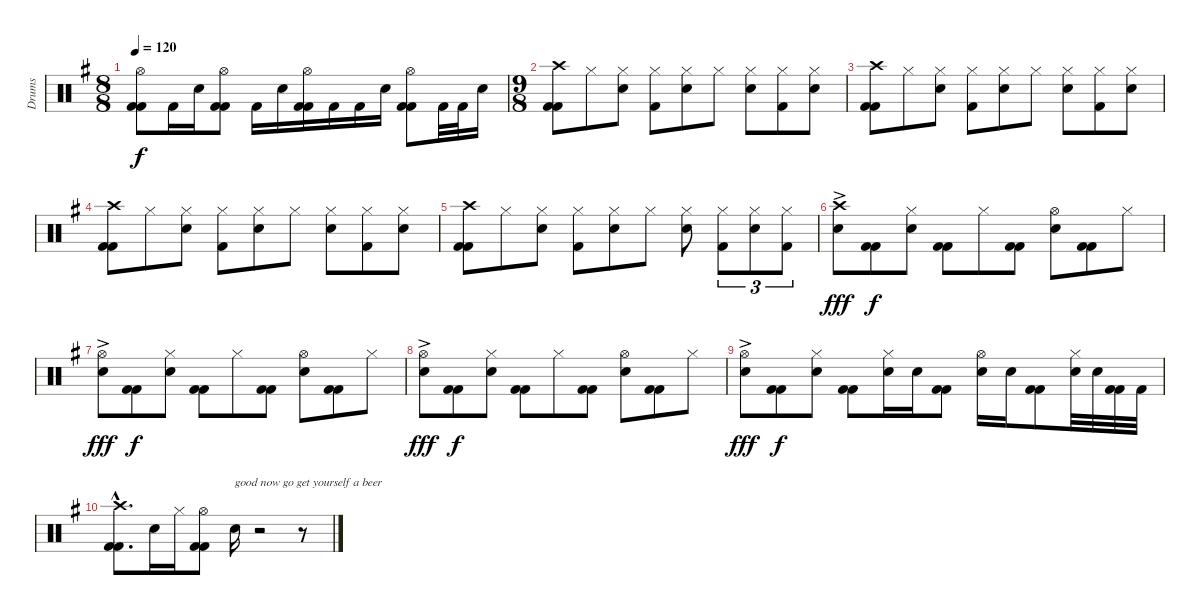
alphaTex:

\track ("Drums" "Drums") {instrument percussion}
\staff {score}
\articulation defaults
\ts (8 8)
\tempo 120
\clef neutral
\ks g
("Hi-Hat (open)" "Kick (hit) 2" "Kick (hit) 2").8{dy f} "Kick (hit) 2".16 "Snare (hit) 2".16 ("Hi-Hat (open)" "Kick (hit) 2" "Kick (hit) 2").8 "Kick (hit) 2".16 "Snare (hit) 2".16 ("Hi-Hat (open)" "Kick (hit) 2" "Kick (hit) 2").16 "Kick (hit) 2".16 "Kick (hit) 2".16 "Snare (hit) 2".16 ("Hi-Hat (open)" "Kick (hit) 2" "Kick (hit) 2").8 "Kick (hit) 2".32 "Kick (hit) 2".32 "Snare (hit) 2".16 |
\ts (9 8)
("Crash high (hit)" "Kick (hit) 2" "Kick (hit) 2").8 "Hi-Hat (closed)".8 ("Hi-Hat (closed)" "Snare (hit) 2").8 ("Hi-Hat (closed)" "Kick (hit) 2").8 ("Hi-Hat (closed)" "Snare (hit) 2").8 "Hi-Hat (closed)".8 ("Hi-Hat (closed)" "Snare (hit) 2").8 ("Hi-Hat (closed)" "Kick (hit) 2").8 ("Hi-Hat (closed)" "Snare (hit) 2").8 |
("Crash high (hit)" "Kick (hit) 2" "Kick (hit) 2").8 "Hi-Hat (closed)".8 ("Hi-Hat (closed)" "Snare (hit) 2").8 ("Hi-Hat (closed)" "Kick (hit) 2").8 ("Hi-Hat (closed)" "Snare (hit) 2").8 "Hi-Hat (closed)".8 ("Hi-Hat (closed)" "Snare (hit) 2").8 ("Hi-Hat (closed)" "Kick (hit) 2").8 ("Hi-Hat (closed)" "Snare (hit) 2").8 |
("Crash high (hit)" "Kick (hit) 2" "Kick (hit) 2").8 "Hi-Hat (closed)".8 ("Hi-Hat (closed)" "Snare (hit) 2").8 ("Hi-Hat (closed)" "Kick (hit) 2").8 ("Hi-Hat (closed)" "Snare (hit) 2").8 "Hi-Hat (closed)".8 ("Hi-Hat (closed)" "Snare (hit) 2").8 ("Hi-Hat (closed)" "Kick (hit) 2").8 ("Hi-Hat (closed)" "Snare (hit) 2").8 |
("Crash high (hit)" "Kick (hit) 2" "Kick (hit) 2").8 "Hi-Hat (closed)".8 ("Hi-Hat (closed)" "Snare (hit) 2").8 ("Hi-Hat (closed)" "Kick (hit) 2").8 ("Hi-Hat (closed)" "Snare (hit) 2").8 "Hi-Hat (closed)".8 ("Hi-Hat (closed)" "Snare (hit) 2").8 ("Hi-Hat (closed)" "Kick (hit) 2").8{tu (3 2)} ("Hi-Hat (closed)" "Snare (hit) 2").8{tu (3 2)} ("Hi-Hat (closed)" "Kick (hit) 2").8{tu (3 2)} |
("Crash high (hit)" "Snare (hit) 2"{ac}).8{dy fff} ("Kick (hit) 2" "Kick (hit) 2").8{dy f} ("Hi-Hat (closed)" "Snare (hit) 2").8 ("Kick (hit) 2" "Kick (hit) 2").8 "Hi-Hat (closed)".8 ("Kick (hit) 2" "Kick (hit) 2").8 ("Hi-Hat (open)" "Snare (hit) 2").8 ("Kick (hit) 2" "Kick (hit) 2").8 "Hi-Hat (closed)".8 |
("Hi-Hat (open)" "Snare (hit) 2"{ac}).8{dy fff} ("Kick (hit) 2" "Kick (hit) 2").8{dy f} ("Hi-Hat (closed)" "Snare (hit) 2").8 ("Kick (hit) 2" "Kick (hit) 2").8 "Hi-Hat (closed)".8 ("Kick (hit) 2" "Kick (hit) 2").8 ("Hi-Hat (open)" "Snare (hit) 2").8 ("Kick (hit) 2" "Kick (hit) 2").8 "Hi-Hat (closed)".8 |
("Hi-Hat (open)" "Snare (hit) 2"{ac}).8{dy fff} ("Kick (hit) 2" "Kick (hit) 2").8{dy f} ("Hi-Hat (closed)" "Snare (hit) 2").8 ("Kick (hit) 2" "Kick (hit) 2").8 "Hi-Hat (closed)".8 ("Kick (hit) 2" "Kick (hit) 2").8 ("Hi-Hat (open)" "Snare (hit) 2").8 ("Kick (hit) 2" "Kick (hit) 2").8 "Hi-Hat (closed)".8 |
("Hi-Hat (open)" "Snare (hit) 2"{ac}).8{dy fff} ("Kick (hit) 2" "Kick (hit) 2").8{dy f} ("Hi-Hat (closed)" "Snare (hit) 2").8 ("Kick (hit) 2" "Kick (hit) 2").8 ("Hi-Hat (closed)" "Snare (hit) 2").16 "Snare (hit) 2".16 ("Kick (hit) 2" "Kick (hit) 2").8 ("Hi-Hat (open)" "Snare (hit) 2").16 "Snare (hit) 2".16 ("Kick (hit) 2" "Kick (hit) 2").8 ("Hi-Hat (closed)" "Snare (hit) 2").32 "Snare (hit) 2".32 ("Kick (hit) 2" "Kick (hit) 2").32 "Kick (hit) 2".32 |
("Crash high (hit)"{hac} "Kick (hit) 2"{hac} "Kick (hit) 2"{hac}).8{d} "Electric Snare (hit)".16 "Hi-Hat (closed)".16 ("Hi-Hat (open)" "Kick (hit) 2" "Kick (hit) 2").8 "Electric Snare (hit)".16{txt "good now go get yourself a beer"} r.2 r.8
